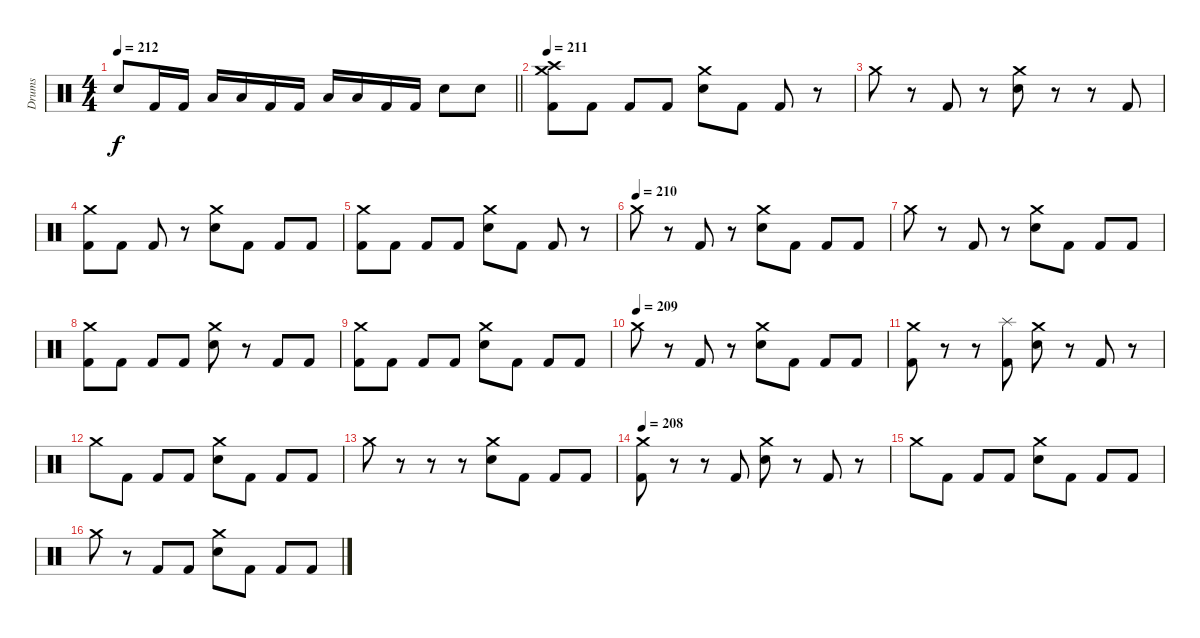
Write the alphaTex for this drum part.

\track ("Drums" "Drums") {instrument percussion}
\staff {score}
\articulation defaults
\ts (4 4)
\tempo 212
\clef neutral
\barLineRight lightlight
\ks c "Electric Snare (hit)".8{dy f} "Kick (hit) 2".16 "Kick (hit) 2".16 "Low Tom (hit)".16 "Low Tom (hit)".16 "Kick (hit) 2".16 "Kick (hit) 2".16 "Low Floor Tom (hit)".16 "Low Floor Tom (hit)".16 "Kick (hit) 2".16 "Kick (hit) 2".16 "Electric Snare (hit)".8 "Electric Snare (hit)".8
|
\section ("" "")
\tempo 211
("Crash high (hit)" "Crash medium (hit)" "Kick (hit) 2").8 "Kick (hit) 2".8 "Kick (hit) 2".8 "Kick (hit) 2".8 ("Crash medium (hit)" "Electric Snare (hit)").8 "Kick (hit) 2".8 "Kick (hit) 2".8 r.8 |
"Crash medium (hit)".8 r.8 "Kick (hit) 2".8 r.8 ("Crash medium (hit)" "Electric Snare (hit)").8 r.8 r.8 "Kick (hit) 2".8 |
("Crash medium (hit)" "Kick (hit) 2").8 "Kick (hit) 2".8 "Kick (hit) 2".8 r.8 ("Crash medium (hit)" "Electric Snare (hit)").8 "Kick (hit) 2".8 "Kick (hit) 2".8 "Kick (hit) 2".8 |
("Crash medium (hit)" "Kick (hit) 2").8 "Kick (hit) 2".8 "Kick (hit) 2".8 "Kick (hit) 2".8 ("Crash medium (hit)" "Electric Snare (hit)").8 "Kick (hit) 2".8 "Kick (hit) 2".8 r.8 |
\tempo (210)
"Crash medium (hit)".8 r.8 "Kick (hit) 2".8 r.8 ("Crash medium (hit)" "Electric Snare (hit)").8 "Kick (hit) 2".8 "Kick (hit) 2".8 "Kick (hit) 2".8 |
"Crash medium (hit)".8 r.8 "Kick (hit) 2".8 r.8 ("Crash medium (hit)" "Electric Snare (hit)").8 "Kick (hit) 2".8 "Kick (hit) 2".8 "Kick (hit) 2".8 |
("Crash medium (hit)" "Kick (hit) 2").8 "Kick (hit) 2".8 "Kick (hit) 2".8 "Kick (hit) 2".8 ("Crash medium (hit)" "Electric Snare (hit)").8 r.8 "Kick (hit) 2".8 "Kick (hit) 2".8 |
("Crash medium (hit)" "Kick (hit) 2").8 "Kick (hit) 2".8 "Kick (hit) 2".8 "Kick (hit) 2".8 ("Crash medium (hit)" "Electric Snare (hit)").8 "Kick (hit) 2".8 "Kick (hit) 2".8 "Kick (hit) 2".8 |
\tempo (209)
"Crash medium (hit)".8 r.8 "Kick (hit) 2".8 r.8 ("Crash medium (hit)" "Electric Snare (hit)").8 "Kick (hit) 2".8 "Kick (hit) 2".8 "Kick (hit) 2".8 |
("Crash medium (hit)" "Kick (hit) 2").8 r.8 r.8 ("Splash (hit)" "Kick (hit) 2").8 ("Crash medium (hit)" "Electric Snare (hit)").8 r.8 "Kick (hit) 2".8 r.8 |
"Crash medium (hit)".8 "Kick (hit) 2".8 "Kick (hit) 2".8 "Kick (hit) 2".8 ("Crash medium (hit)" "Electric Snare (hit)").8 "Kick (hit) 2".8 "Kick (hit) 2".8 "Kick (hit) 2".8 |
"Crash medium (hit)".8 r.8 r.8 r.8 ("Crash medium (hit)" "Electric Snare (hit)").8 "Kick (hit) 2".8 "Kick (hit) 2".8 "Kick (hit) 2".8 |
\tempo 208
("Crash medium (hit)" "Kick (hit) 2").8 r.8 r.8 "Kick (hit) 2".8 ("Crash medium (hit)" "Electric Snare (hit)").8 r.8 "Kick (hit) 2".8 r.8 |
"Crash medium (hit)".8 "Kick (hit) 2".8 "Kick (hit) 2".8 "Kick (hit) 2".8 ("Crash medium (hit)" "Electric Snare (hit)").8 "Kick (hit) 2".8 "Kick (hit) 2".8 "Kick (hit) 2".8 |
"Crash medium (hit)".8 r.8 "Kick (hit) 2".8 "Kick (hit) 2".8 ("Crash medium (hit)" "Electric Snare (hit)").8 "Kick (hit) 2".8 "Kick (hit) 2".8 "Kick (hit) 2".8
